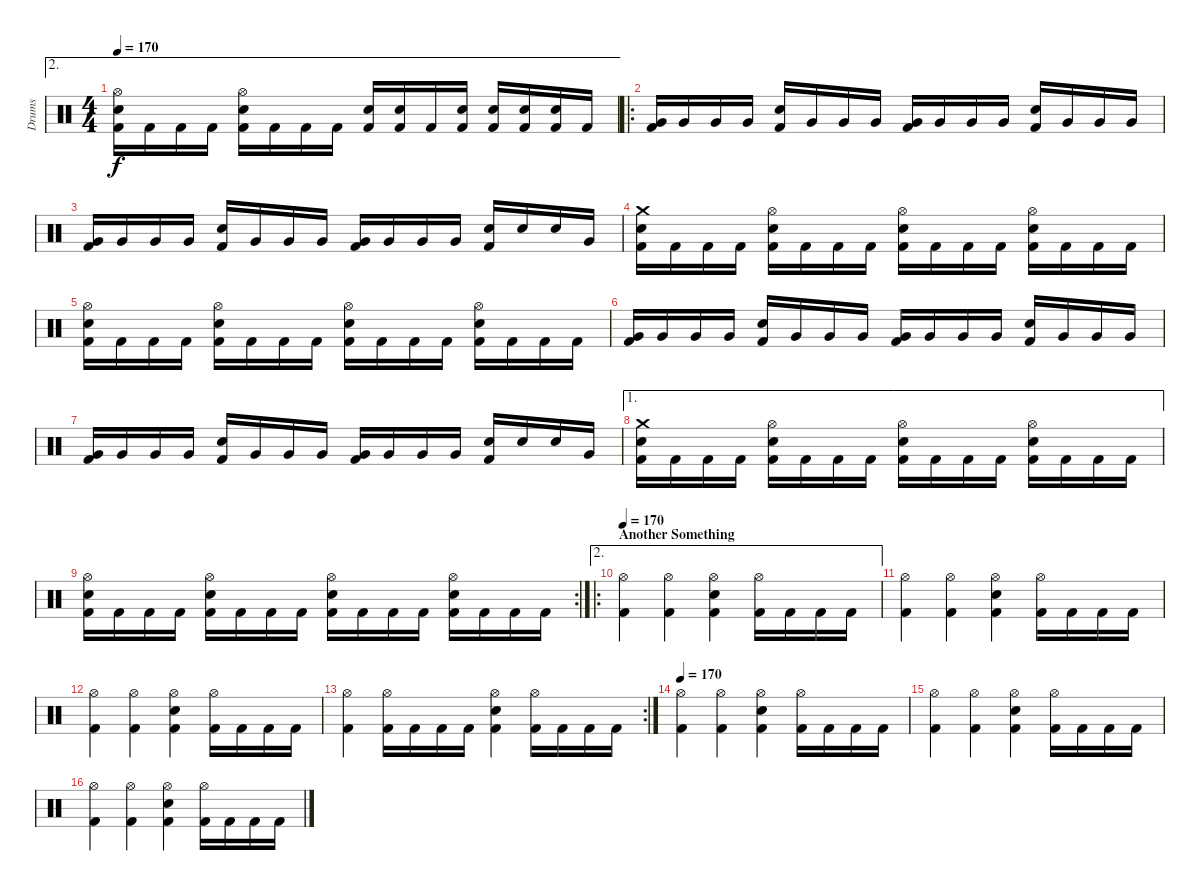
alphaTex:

\track ("Drums" "Drums") {instrument percussion}
\staff {score}
\articulation defaults
\ae 2
\ts (4 4)
\tempo 170
\clef neutral
\ks c
("Hi-Hat (open)" "Snare (hit) 2" "Kick (hit) 2").16{dy f} "Kick (hit) 2".16 "Kick (hit) 2".16 "Kick (hit) 2".16 ("Hi-Hat (open)" "Snare (hit) 2" "Kick (hit) 2").16 "Kick (hit) 2".16 "Kick (hit) 2".16 "Kick (hit) 2".16 ("Snare (hit) 2" "Kick (hit) 2").16 ("Snare (hit) 2" "Kick (hit) 2").16 "Kick (hit) 2".16 ("Snare (hit) 2" "Kick (hit) 2").16 ("Snare (hit) 2" "Kick (hit) 2").16 ("Snare (hit) 2" "Kick (hit) 2").16 ("Snare (hit) 2" "Kick (hit) 2").16 "Kick (hit) 2".16 |
\ro
("Very Low Tom (hit)" "Kick (hit) 2").16 "Very Low Tom (hit)".16 "Very Low Tom (hit)".16 "Very Low Tom (hit)".16 ("Snare (hit) 2" "Kick (hit) 2").16 "Very Low Tom (hit)".16 "Very Low Tom (hit)".16 "Very Low Tom (hit)".16 ("Very Low Tom (hit)" "Kick (hit) 2").16 "Very Low Tom (hit)".16 "Very Low Tom (hit)".16 "Very Low Tom (hit)".16 ("Snare (hit) 2" "Kick (hit) 2").16 "Very Low Tom (hit)".16 "Very Low Tom (hit)".16 "Very Low Tom (hit)".16 |
("Very Low Tom (hit)" "Kick (hit) 2").16 "Very Low Tom (hit)".16 "Very Low Tom (hit)".16 "Very Low Tom (hit)".16 ("Snare (hit) 2" "Kick (hit) 2").16 "Very Low Tom (hit)".16 "Very Low Tom (hit)".16 "Very Low Tom (hit)".16 ("Very Low Tom (hit)" "Kick (hit) 2").16 "Very Low Tom (hit)".16 "Very Low Tom (hit)".16 "Very Low Tom (hit)".16 ("Snare (hit) 2" "Kick (hit) 2").16 "Snare (hit) 2".16 "Snare (hit) 2".16 "Very Low Tom (hit)".16 |
("Crash medium (hit)" "Snare (hit) 2" "Kick (hit) 2").16 "Kick (hit) 2".16 "Kick (hit) 2".16 "Kick (hit) 2".16 ("Hi-Hat (open)" "Snare (hit) 2" "Kick (hit) 2").16 "Kick (hit) 2".16 "Kick (hit) 2".16 "Kick (hit) 2".16 ("Hi-Hat (open)" "Snare (hit) 2" "Kick (hit) 2").16 "Kick (hit) 2".16 "Kick (hit) 2".16 "Kick (hit) 2".16 ("Hi-Hat (open)" "Snare (hit) 2" "Kick (hit) 2").16 "Kick (hit) 2".16 "Kick (hit) 2".16 "Kick (hit) 2".16 |
("Hi-Hat (open)" "Snare (hit) 2" "Kick (hit) 2").16 "Kick (hit) 2".16 "Kick (hit) 2".16 "Kick (hit) 2".16 ("Hi-Hat (open)" "Snare (hit) 2" "Kick (hit) 2").16 "Kick (hit) 2".16 "Kick (hit) 2".16 "Kick (hit) 2".16 ("Hi-Hat (open)" "Snare (hit) 2" "Kick (hit) 2").16 "Kick (hit) 2".16 "Kick (hit) 2".16 "Kick (hit) 2".16 ("Hi-Hat (open)" "Snare (hit) 2" "Kick (hit) 2").16 "Kick (hit) 2".16 "Kick (hit) 2".16 "Kick (hit) 2".16 |
("Very Low Tom (hit)" "Kick (hit) 2").16 "Very Low Tom (hit)".16 "Very Low Tom (hit)".16 "Very Low Tom (hit)".16 ("Snare (hit) 2" "Kick (hit) 2").16 "Very Low Tom (hit)".16 "Very Low Tom (hit)".16 "Very Low Tom (hit)".16 ("Very Low Tom (hit)" "Kick (hit) 2").16 "Very Low Tom (hit)".16 "Very Low Tom (hit)".16 "Very Low Tom (hit)".16 ("Snare (hit) 2" "Kick (hit) 2").16 "Very Low Tom (hit)".16 "Very Low Tom (hit)".16 "Very Low Tom (hit)".16 |
("Very Low Tom (hit)" "Kick (hit) 2").16 "Very Low Tom (hit)".16 "Very Low Tom (hit)".16 "Very Low Tom (hit)".16 ("Snare (hit) 2" "Kick (hit) 2").16 "Very Low Tom (hit)".16 "Very Low Tom (hit)".16 "Very Low Tom (hit)".16 ("Very Low Tom (hit)" "Kick (hit) 2").16 "Very Low Tom (hit)".16 "Very Low Tom (hit)".16 "Very Low Tom (hit)".16 ("Snare (hit) 2" "Kick (hit) 2").16 "Snare (hit) 2".16 "Snare (hit) 2".16 "Very Low Tom (hit)".16 |
\ae 1
("Crash medium (hit)" "Snare (hit) 2" "Kick (hit) 2").16 "Kick (hit) 2".16 "Kick (hit) 2".16 "Kick (hit) 2".16 ("Hi-Hat (open)" "Snare (hit) 2" "Kick (hit) 2").16 "Kick (hit) 2".16 "Kick (hit) 2".16 "Kick (hit) 2".16 ("Hi-Hat (open)" "Snare (hit) 2" "Kick (hit) 2").16 "Kick (hit) 2".16 "Kick (hit) 2".16 "Kick (hit) 2".16 ("Hi-Hat (open)" "Snare (hit) 2" "Kick (hit) 2").16 "Kick (hit) 2".16 "Kick (hit) 2".16 "Kick (hit) 2".16 |
\rc 2
("Hi-Hat (open)" "Snare (hit) 2" "Kick (hit) 2").16 "Kick (hit) 2".16 "Kick (hit) 2".16 "Kick (hit) 2".16 ("Hi-Hat (open)" "Snare (hit) 2" "Kick (hit) 2").16 "Kick (hit) 2".16 "Kick (hit) 2".16 "Kick (hit) 2".16 ("Hi-Hat (open)" "Snare (hit) 2" "Kick (hit) 2").16 "Kick (hit) 2".16 "Kick (hit) 2".16 "Kick (hit) 2".16 ("Hi-Hat (open)" "Snare (hit) 2" "Kick (hit) 2").16 "Kick (hit) 2".16 "Kick (hit) 2".16 "Kick (hit) 2".16 |
\ae 2
\ro
\section ("" "Another Something")
\tempo 170
("Hi-Hat (open)" "Kick (hit) 2").4 ("Hi-Hat (open)" "Kick (hit) 2").4 ("Hi-Hat (open)" "Snare (hit) 2" "Kick (hit) 2").4 ("Hi-Hat (open)" "Kick (hit) 2").16 "Kick (hit) 2".16 "Kick (hit) 2".16 "Kick (hit) 2".16 |
("Hi-Hat (open)" "Kick (hit) 2").4 ("Hi-Hat (open)" "Kick (hit) 2").4 ("Hi-Hat (open)" "Snare (hit) 2" "Kick (hit) 2").4 ("Hi-Hat (open)" "Kick (hit) 2").16 "Kick (hit) 2".16 "Kick (hit) 2".16 "Kick (hit) 2".16 |
("Hi-Hat (open)" "Kick (hit) 2").4 ("Hi-Hat (open)" "Kick (hit) 2").4 ("Hi-Hat (open)" "Snare (hit) 2" "Kick (hit) 2").4 ("Hi-Hat (open)" "Kick (hit) 2").16 "Kick (hit) 2".16 "Kick (hit) 2".16 "Kick (hit) 2".16 |
\rc 2
("Hi-Hat (open)" "Kick (hit) 2").4 ("Hi-Hat (open)" "Kick (hit) 2").16 "Kick (hit) 2".16 "Kick (hit) 2".16 "Kick (hit) 2".16 ("Hi-Hat (open)" "Snare (hit) 2" "Kick (hit) 2").4 ("Hi-Hat (open)" "Kick (hit) 2").16 "Kick (hit) 2".16 "Kick (hit) 2".16 "Kick (hit) 2".16 |
\tempo 170
("Hi-Hat (open)" "Kick (hit) 2").4{volume 13} ("Hi-Hat (open)" "Kick (hit) 2").4 ("Hi-Hat (open)" "Snare (hit) 2" "Kick (hit) 2").4 ("Hi-Hat (open)" "Kick (hit) 2").16 "Kick (hit) 2".16 "Kick (hit) 2".16 "Kick (hit) 2".16 |
("Hi-Hat (open)" "Kick (hit) 2").4 ("Hi-Hat (open)" "Kick (hit) 2").4 ("Hi-Hat (open)" "Snare (hit) 2" "Kick (hit) 2").4 ("Hi-Hat (open)" "Kick (hit) 2").16 "Kick (hit) 2".16 "Kick (hit) 2".16 "Kick (hit) 2".16 |
("Hi-Hat (open)" "Kick (hit) 2").4 ("Hi-Hat (open)" "Kick (hit) 2").4 ("Hi-Hat (open)" "Snare (hit) 2" "Kick (hit) 2").4 ("Hi-Hat (open)" "Kick (hit) 2").16 "Kick (hit) 2".16 "Kick (hit) 2".16 "Kick (hit) 2".16
